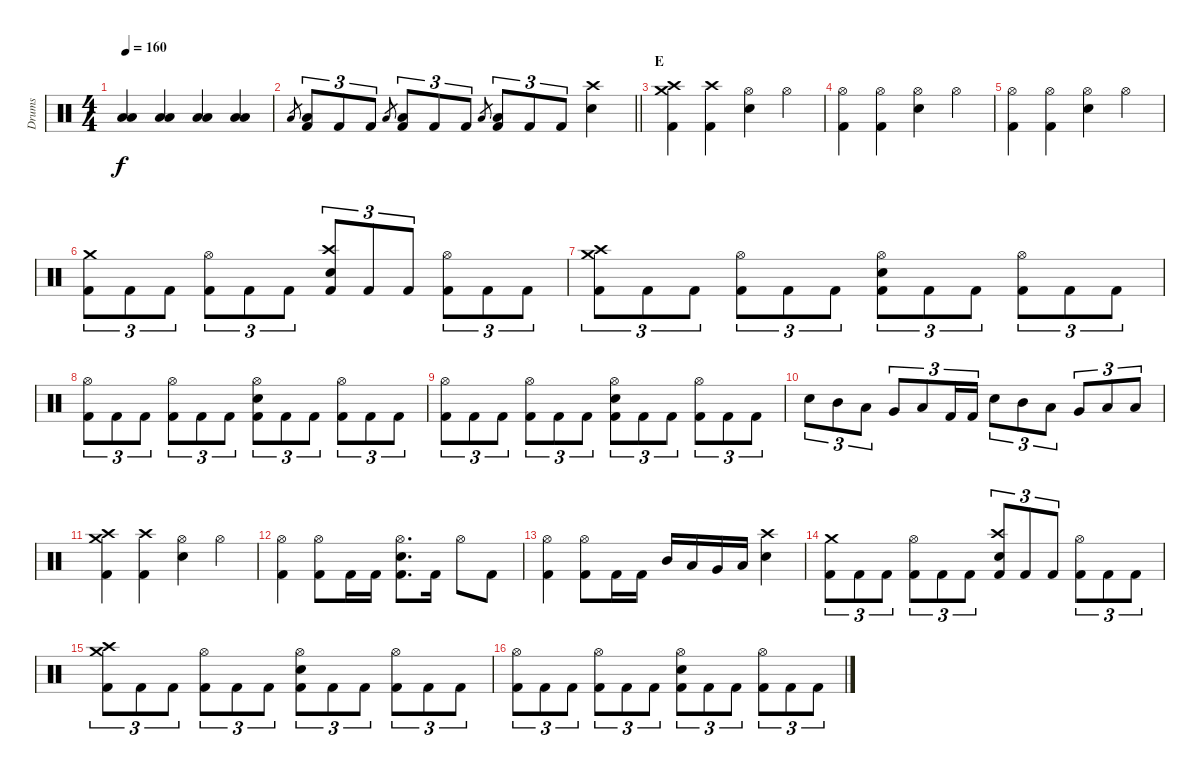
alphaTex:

\track ("Drums" "Drums") {instrument percussion}
\staff {score}
\articulation defaults
\ts (4 4)
\tempo 160
\clef neutral
\ks c
("Low Tom (hit)" "Low Tom (hit)").4{bu 120 dy f} ("Low Floor Tom (hit)" "Low Floor Tom (hit)").4{bu 120} ("Low Tom (hit)" "Low Tom (hit)").4{bu 120} ("Low Floor Tom (hit)" "Low Floor Tom (hit)").4{bu 120} |
\barLineRight lightlight "Low Tom (hit)".8{gr}
("Low Tom (hit)" "Kick (hit) 2").8{tu (3 2)} "Kick (hit) 2".8{tu (3 2)} "Kick (hit) 2".8{tu (3 2)} "Low Floor Tom (hit)".8{gr} ("Low Floor Tom (hit)" "Kick (hit) 2").8{tu (3 2)} "Kick (hit) 2".8{tu (3 2)} "Kick (hit) 2".8{tu (3 2)} "Low Tom (hit)".8{gr} ("Low Tom (hit)" "Kick (hit) 2").8{tu (3 2)} "Kick (hit) 2".8{tu (3 2)} "Kick (hit) 2".8{tu (3 2)} ("Crash high (hit)" "Electric Snare (hit)").4 |
\section ("" "E")
("Crash medium (hit)" "Crash high (hit)" "Kick (hit) 2").4 ("Crash high (hit)" "Kick (hit) 2").4 ("Hi-Hat (open)" "Electric Snare (hit)").4 "Hi-Hat (open)".4 |
("Hi-Hat (open)" "Kick (hit) 2").4 ("Hi-Hat (open)" "Kick (hit) 2").4 ("Hi-Hat (open)" "Electric Snare (hit)").4 "Hi-Hat (open)".4 |
("Hi-Hat (open)" "Kick (hit) 2").4 ("Hi-Hat (open)" "Kick (hit) 2").4 ("Hi-Hat (open)" "Electric Snare (hit)").4 "Hi-Hat (open)".4 |
("Crash medium (hit)" "Kick (hit) 2").8{tu (3 2)} "Kick (hit) 2".8{tu (3 2)} "Kick (hit) 2".8{tu (3 2)} ("Hi-Hat (open)" "Kick (hit) 2").8{tu (3 2)} "Kick (hit) 2".8{tu (3 2)} "Kick (hit) 2".8{tu (3 2)} ("Crash high (hit)" "Electric Snare (hit)" "Kick (hit) 2").8{tu (3 2)} "Kick (hit) 2".8{tu (3 2)} "Kick (hit) 2".8{tu (3 2)} ("Hi-Hat (open)" "Kick (hit) 2").8{tu (3 2)} "Kick (hit) 2".8{tu (3 2)} "Kick (hit) 2".8{tu (3 2)} |
("Crash medium (hit)" "Crash high (hit)" "Kick (hit) 2").8{tu (3 2)} "Kick (hit) 2".8{tu (3 2)} "Kick (hit) 2".8{tu (3 2)} ("Hi-Hat (open)" "Kick (hit) 2").8{tu (3 2)} "Kick (hit) 2".8{tu (3 2)} "Kick (hit) 2".8{tu (3 2)} ("Hi-Hat (open)" "Electric Snare (hit)" "Kick (hit) 2").8{tu (3 2)} "Kick (hit) 2".8{tu (3 2)} "Kick (hit) 2".8{tu (3 2)} ("Hi-Hat (open)" "Kick (hit) 2").8{tu (3 2)} "Kick (hit) 2".8{tu (3 2)} "Kick (hit) 2".8{tu (3 2)} |
("Hi-Hat (open)" "Kick (hit) 2").8{tu (3 2)} "Kick (hit) 2".8{tu (3 2)} "Kick (hit) 2".8{tu (3 2)} ("Hi-Hat (open)" "Kick (hit) 2").8{tu (3 2)} "Kick (hit) 2".8{tu (3 2)} "Kick (hit) 2".8{tu (3 2)} ("Hi-Hat (open)" "Electric Snare (hit)" "Kick (hit) 2").8{tu (3 2)} "Kick (hit) 2".8{tu (3 2)} "Kick (hit) 2".8{tu (3 2)} ("Hi-Hat (open)" "Kick (hit) 2").8{tu (3 2)} "Kick (hit) 2".8{tu (3 2)} "Kick (hit) 2".8{tu (3 2)} |
("Hi-Hat (open)" "Kick (hit) 2").8{tu (3 2)} "Kick (hit) 2".8{tu (3 2)} "Kick (hit) 2".8{tu (3 2)} ("Hi-Hat (open)" "Kick (hit) 2").8{tu (3 2)} "Kick (hit) 2".8{tu (3 2)} "Kick (hit) 2".8{tu (3 2)} ("Hi-Hat (open)" "Electric Snare (hit)" "Kick (hit) 2").8{tu (3 2)} "Kick (hit) 2".8{tu (3 2)} "Kick (hit) 2".8{tu (3 2)} ("Hi-Hat (open)" "Kick (hit) 2").8{tu (3 2)} "Kick (hit) 2".8{tu (3 2)} "Kick (hit) 2".8{tu (3 2)} |
"Electric Snare (hit)".8{tu (3 2)} "Mid Tom (hit)".8{tu (3 2)} "Low Tom (hit)".8{tu (3 2)} "Very Low Tom (hit)".8{tu (3 2)} "Low Floor Tom (hit)".8{tu (3 2)} "Kick (hit) 2".16{tu (3 2)} "Kick (hit) 2".16{tu (3 2)} "Electric Snare (hit)".8{tu (3 2)} "Mid Tom (hit)".8{tu (3 2)} "Low Tom (hit)".8{tu (3 2)} "Very Low Tom (hit)".8{tu (3 2)} "Low Floor Tom (hit)".8{tu (3 2)} "Low Tom (hit)".8{tu (3 2)} |
("Crash medium (hit)" "Crash high (hit)" "Kick (hit) 2").4 ("Crash high (hit)" "Kick (hit) 2").4 ("Hi-Hat (open)" "Electric Snare (hit)").4 "Hi-Hat (open)".4 |
("Hi-Hat (open)" "Kick (hit) 2").4 ("Hi-Hat (open)" "Kick (hit) 2").8 "Kick (hit) 2".16 "Kick (hit) 2".16 ("Hi-Hat (open)" "Electric Snare (hit)" "Kick (hit) 2").8{d} "Kick (hit) 2".16 "Hi-Hat (open)".8 "Kick (hit) 2".8 |
("Hi-Hat (open)" "Kick (hit) 2").4 ("Hi-Hat (open)" "Kick (hit) 2").8 "Kick (hit) 2".16 "Kick (hit) 2".16 "Mid Tom (hit)".16 "Low Tom (hit)".16 "Very Low Tom (hit)".16 "Low Floor Tom (hit)".16 ("Crash high (hit)" "Electric Snare (hit)").4 |
("Crash medium (hit)" "Kick (hit) 2").8{tu (3 2)} "Kick (hit) 2".8{tu (3 2)} "Kick (hit) 2".8{tu (3 2)} ("Hi-Hat (open)" "Kick (hit) 2").8{tu (3 2)} "Kick (hit) 2".8{tu (3 2)} "Kick (hit) 2".8{tu (3 2)} ("Crash high (hit)" "Electric Snare (hit)" "Kick (hit) 2").8{tu (3 2)} "Kick (hit) 2".8{tu (3 2)} "Kick (hit) 2".8{tu (3 2)} ("Hi-Hat (open)" "Kick (hit) 2").8{tu (3 2)} "Kick (hit) 2".8{tu (3 2)} "Kick (hit) 2".8{tu (3 2)} |
("Crash medium (hit)" "Crash high (hit)" "Kick (hit) 2").8{tu (3 2)} "Kick (hit) 2".8{tu (3 2)} "Kick (hit) 2".8{tu (3 2)} ("Hi-Hat (open)" "Kick (hit) 2").8{tu (3 2)} "Kick (hit) 2".8{tu (3 2)} "Kick (hit) 2".8{tu (3 2)} ("Hi-Hat (open)" "Electric Snare (hit)" "Kick (hit) 2").8{tu (3 2)} "Kick (hit) 2".8{tu (3 2)} "Kick (hit) 2".8{tu (3 2)} ("Hi-Hat (open)" "Kick (hit) 2").8{tu (3 2)} "Kick (hit) 2".8{tu (3 2)} "Kick (hit) 2".8{tu (3 2)} |
("Hi-Hat (open)" "Kick (hit) 2").8{tu (3 2)} "Kick (hit) 2".8{tu (3 2)} "Kick (hit) 2".8{tu (3 2)} ("Hi-Hat (open)" "Kick (hit) 2").8{tu (3 2)} "Kick (hit) 2".8{tu (3 2)} "Kick (hit) 2".8{tu (3 2)} ("Hi-Hat (open)" "Electric Snare (hit)" "Kick (hit) 2").8{tu (3 2)} "Kick (hit) 2".8{tu (3 2)} "Kick (hit) 2".8{tu (3 2)} ("Hi-Hat (open)" "Kick (hit) 2").8{tu (3 2)} "Kick (hit) 2".8{tu (3 2)} "Kick (hit) 2".8{tu (3 2)}
